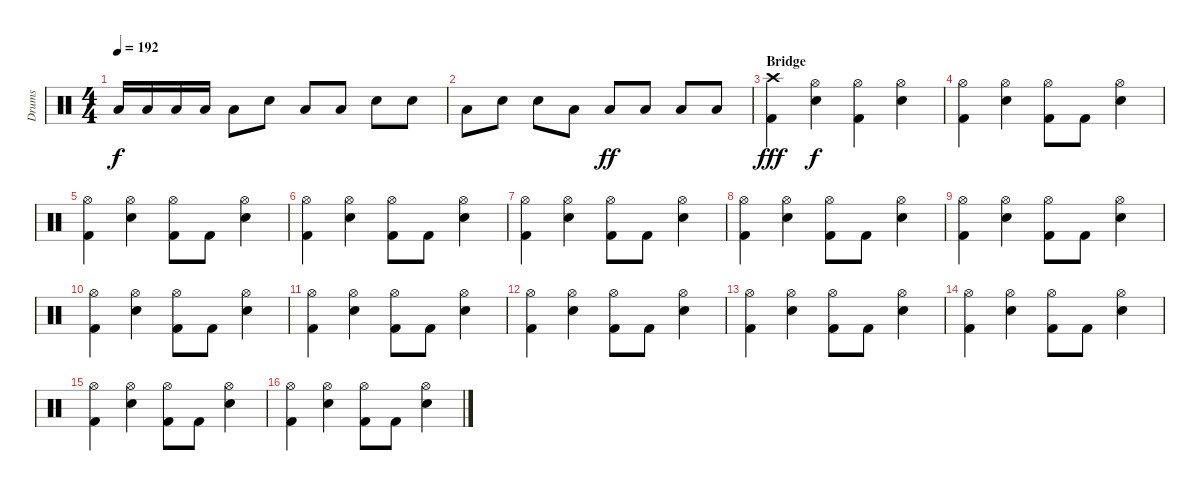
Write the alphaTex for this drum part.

\track ("Drums" "Drums") {instrument percussion}
\staff {score}
\articulation defaults
\ts (4 4)
\tempo 192
\clef neutral
\ks c "Low Tom (hit)".16{dy f} "Low Tom (hit)".16 "Low Tom (hit)".16 "Low Tom (hit)".16 "Low Tom (hit)".8 "Electric Snare (hit)".8 "Low Tom (hit)".8 "Low Tom (hit)".8 "Electric Snare (hit)".8 "Electric Snare (hit)".8
|
"Low Tom (hit)".8 "Electric Snare (hit)".8 "Electric Snare (hit)".8 "Low Tom (hit)".8 "Low Floor Tom (hit)".8{dy ff} "Low Floor Tom (hit)".8 "Low Floor Tom (hit)".8 "Low Floor Tom (hit)".8 |
\section ("" "Bridge")
("Crash high (hit)" "Kick (hit) 2").4{dy fff} ("Hi-Hat (open)" "Electric Snare (hit)").4{dy f} ("Hi-Hat (open)" "Kick (hit) 2").4 ("Hi-Hat (open)" "Electric Snare (hit)").4 |
("Hi-Hat (open)" "Kick (hit) 2").4 ("Hi-Hat (open)" "Electric Snare (hit)").4 ("Hi-Hat (open)" "Kick (hit) 2").8 "Kick (hit) 2".8 ("Hi-Hat (open)" "Electric Snare (hit)").4 |
("Hi-Hat (open)" "Kick (hit) 2").4 ("Hi-Hat (open)" "Electric Snare (hit)").4 ("Hi-Hat (open)" "Kick (hit) 2").8 "Kick (hit) 2".8 ("Hi-Hat (open)" "Electric Snare (hit)").4 |
("Hi-Hat (open)" "Kick (hit) 2").4 ("Hi-Hat (open)" "Electric Snare (hit)").4 ("Hi-Hat (open)" "Kick (hit) 2").8 "Kick (hit) 2".8 ("Hi-Hat (open)" "Electric Snare (hit)").4 |
("Hi-Hat (open)" "Kick (hit) 2").4 ("Hi-Hat (open)" "Electric Snare (hit)").4 ("Hi-Hat (open)" "Kick (hit) 2").8 "Kick (hit) 2".8 ("Hi-Hat (open)" "Electric Snare (hit)").4 |
("Hi-Hat (open)" "Kick (hit) 2").4 ("Hi-Hat (open)" "Electric Snare (hit)").4 ("Hi-Hat (open)" "Kick (hit) 2").8 "Kick (hit) 2".8 ("Hi-Hat (open)" "Electric Snare (hit)").4 |
("Hi-Hat (open)" "Kick (hit) 2").4 ("Hi-Hat (open)" "Electric Snare (hit)").4 ("Hi-Hat (open)" "Kick (hit) 2").8 "Kick (hit) 2".8 ("Hi-Hat (open)" "Electric Snare (hit)").4 |
("Hi-Hat (open)" "Kick (hit) 2").4 ("Hi-Hat (open)" "Electric Snare (hit)").4 ("Hi-Hat (open)" "Kick (hit) 2").8 "Kick (hit) 2".8 ("Hi-Hat (open)" "Electric Snare (hit)").4 |
("Hi-Hat (open)" "Kick (hit) 2").4 ("Hi-Hat (open)" "Electric Snare (hit)").4 ("Hi-Hat (open)" "Kick (hit) 2").8 "Kick (hit) 2".8 ("Hi-Hat (open)" "Electric Snare (hit)").4 |
("Hi-Hat (open)" "Kick (hit) 2").4 ("Hi-Hat (open)" "Electric Snare (hit)").4 ("Hi-Hat (open)" "Kick (hit) 2").8 "Kick (hit) 2".8 ("Hi-Hat (open)" "Electric Snare (hit)").4 |
("Hi-Hat (open)" "Kick (hit) 2").4 ("Hi-Hat (open)" "Electric Snare (hit)").4 ("Hi-Hat (open)" "Kick (hit) 2").8 "Kick (hit) 2".8 ("Hi-Hat (open)" "Electric Snare (hit)").4 |
("Hi-Hat (open)" "Kick (hit) 2").4 ("Hi-Hat (open)" "Electric Snare (hit)").4 ("Hi-Hat (open)" "Kick (hit) 2").8 "Kick (hit) 2".8 ("Hi-Hat (open)" "Electric Snare (hit)").4 |
("Hi-Hat (open)" "Kick (hit) 2").4 ("Hi-Hat (open)" "Electric Snare (hit)").4 ("Hi-Hat (open)" "Kick (hit) 2").8 "Kick (hit) 2".8 ("Hi-Hat (open)" "Electric Snare (hit)").4 |
("Hi-Hat (open)" "Kick (hit) 2").4 ("Hi-Hat (open)" "Electric Snare (hit)").4 ("Hi-Hat (open)" "Kick (hit) 2").8 "Kick (hit) 2".8 ("Hi-Hat (open)" "Electric Snare (hit)").4
